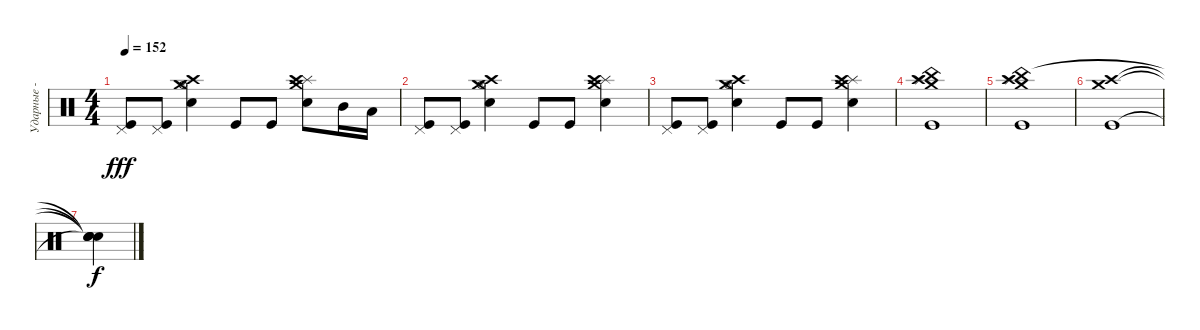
\track ("Ударные - Трэвис" "Ударные - ") {instrument percussion}
\staff {score}
\articulation defaults
\ts (4 4)
\tempo 152
\clef neutral
\ks c
("Pedal Hi-Hat (hit)" "Kick (hit)").8{dy fff} ("Pedal Hi-Hat (hit)" "Kick (hit)").8 ("Crash high (hit)" "Crash medium (hit)" "Hi-Hat (open)" "Snare (hit) 2").4 "Kick (hit)".8 "Kick (hit)".8 ("Crash medium (hit)" "Splash (hit)" "Crash high (hit)" "Snare (hit) 2").8 "Mid Tom (hit)".16 "Low Tom (hit)".16 |
("Pedal Hi-Hat (hit)" "Kick (hit)").8 ("Pedal Hi-Hat (hit)" "Kick (hit)").8 ("Crash high (hit)" "Crash medium (hit)" "Hi-Hat (open)" "Snare (hit) 2").4 "Kick (hit)".8 "Kick (hit)".8 ("Crash medium (hit)" "Splash (hit)" "Crash high (hit)" "Snare (hit) 2").4 |
("Pedal Hi-Hat (hit)" "Kick (hit)").8 ("Pedal Hi-Hat (hit)" "Kick (hit)").8 ("Crash high (hit)" "Crash medium (hit)" "Hi-Hat (open)" "Snare (hit) 2").4 "Kick (hit)".8 "Kick (hit)".8 ("Crash medium (hit)" "Splash (hit)" "Crash high (hit)" "Snare (hit) 2").4 |
("Crash medium (hit)" "Splash (hit)" "Crash high (hit)" "China (hit)" "Kick (hit)").1 |
("Crash medium (hit)" "Splash (hit)" "Crash high (hit)" "China (hit)" "Kick (hit)").1 |
("Crash medium (hit)" "Crash high (hit)" "Kick (hit)").1 |
("Snare (hit)"{t} "Snare (hit)"{t} "Snare (hit)"{t} "Snare (hit)"{t}).4{dy f}
